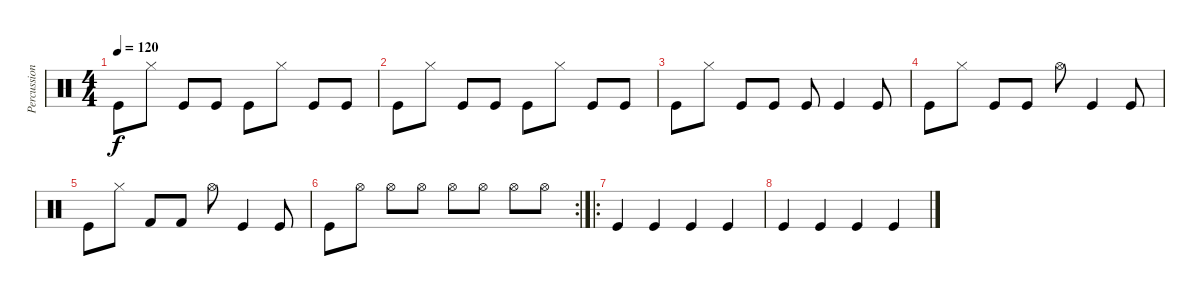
\track ("Percussions" "Percussion") {instrument percussion}
\staff {score}
\articulation defaults
\ts (4 4)
\tempo 120
\clef neutral
\ks c "Kick (hit)".8{dy f} "Hi-Hat (closed)".8 "Kick (hit)".8 "Kick (hit)".8 "Kick (hit)".8 "Hi-Hat (closed)".8 "Kick (hit)".8 "Kick (hit)".8
|
"Kick (hit)".8 "Hi-Hat (closed)".8 "Kick (hit)".8 "Kick (hit)".8 "Kick (hit)".8 "Hi-Hat (closed)".8 "Kick (hit)".8 "Kick (hit)".8 |
"Kick (hit)".8 "Hi-Hat (closed)".8 "Kick (hit)".8 "Kick (hit)".8 "Kick (hit)".8 "Kick (hit)".4 "Kick (hit)".8 |
"Kick (hit)".8 "Hi-Hat (closed)".8 "Kick (hit)".8 "Kick (hit)".8 "Hi-Hat (open)".8 "Kick (hit)".4 "Kick (hit)".8 |
"Kick (hit)".8 "Hi-Hat (closed)".8 "Kick (hit) 2".8 "Kick (hit) 2".8 "Hi-Hat (open)".8 "Kick (hit)".4 "Kick (hit)".8 |
\rc 2 "Kick (hit)".8 "Hi-Hat (open)".8 "Hi-Hat (open)".8 "Hi-Hat (open)".8 "Hi-Hat (open)".8 "Hi-Hat (open)".8 "Hi-Hat (open)".8 "Hi-Hat (open)".8
|
\ro "Kick (hit)".4 "Kick (hit)".4 "Kick (hit)".4 "Kick (hit)".4
|
"Kick (hit)".4 "Kick (hit)".4 "Kick (hit)".4 "Kick (hit)".4
